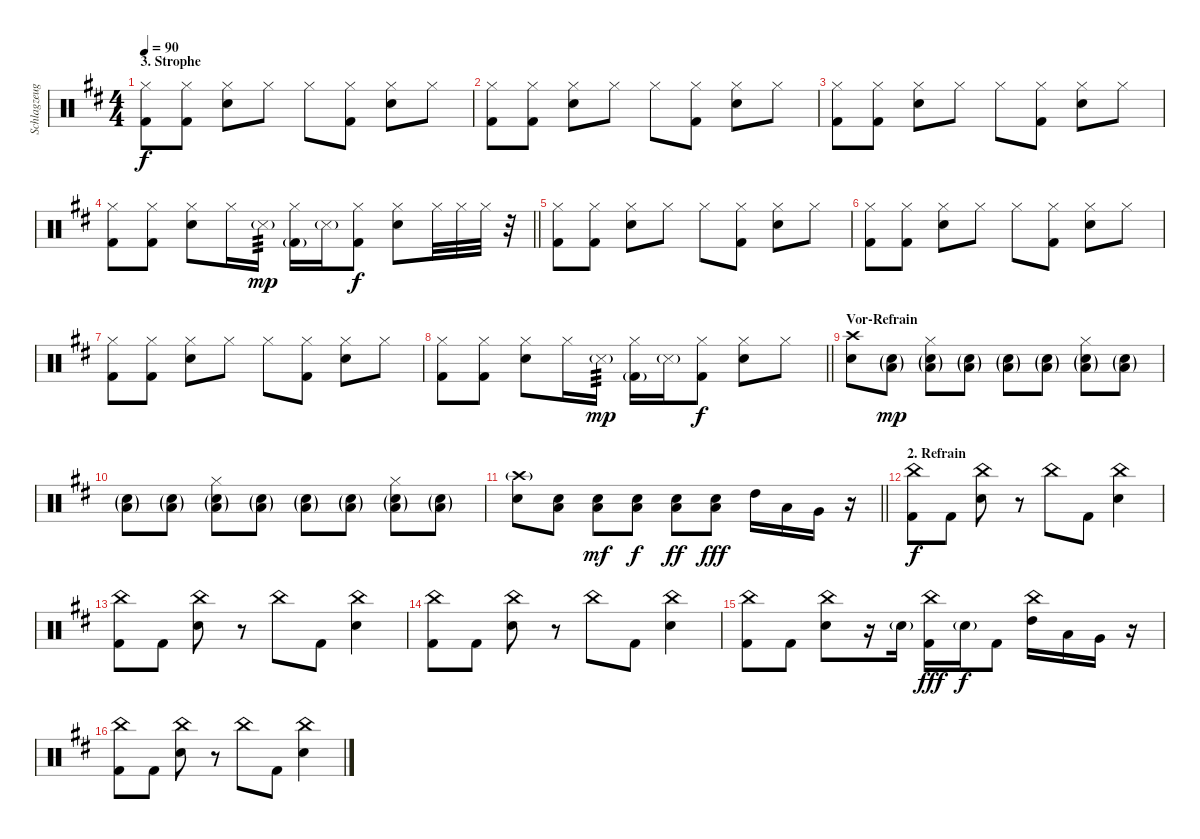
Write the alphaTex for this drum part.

\track ("Schlagzeug" "Schlagzeug") {instrument percussion}
\staff {score}
\articulation defaults
\ts (4 4)
\section ("" "3. Strophe")
\tempo 90
\clef neutral
\ks d
("Hi-Hat (closed)" "Kick (hit) 2").8{dy f} ("Hi-Hat (closed)" "Kick (hit) 2").8 ("Hi-Hat (closed)" "Electric Snare (hit)").8 "Hi-Hat (closed)".8 "Hi-Hat (closed)".8 ("Hi-Hat (closed)" "Kick (hit) 2").8 ("Hi-Hat (closed)" "Electric Snare (hit)").8 "Hi-Hat (closed)".8 |
("Hi-Hat (closed)" "Kick (hit) 2").8 ("Hi-Hat (closed)" "Kick (hit) 2").8 ("Hi-Hat (closed)" "Electric Snare (hit)").8 "Hi-Hat (closed)".8 "Hi-Hat (closed)".8 ("Hi-Hat (closed)" "Kick (hit) 2").8 ("Hi-Hat (closed)" "Electric Snare (hit)").8 "Hi-Hat (closed)".8 |
("Hi-Hat (closed)" "Kick (hit) 2").8 ("Hi-Hat (closed)" "Kick (hit) 2").8 ("Hi-Hat (closed)" "Electric Snare (hit)").8 "Hi-Hat (closed)".8 "Hi-Hat (closed)".8 ("Hi-Hat (closed)" "Kick (hit) 2").8 ("Hi-Hat (closed)" "Electric Snare (hit)").8 "Hi-Hat (closed)".8 |
\barLineRight lightlight
("Hi-Hat (closed)" "Kick (hit) 2").8 ("Hi-Hat (closed)" "Kick (hit) 2").8 ("Hi-Hat (closed)" "Electric Snare (hit)").8 "Hi-Hat (closed)".16 "Snare (side stick) 3"{g}.16{tp 3 dy mp} ("Hi-Hat (closed)" "Kick (hit) 2"{g}).16 "Snare (side stick) 3"{g}.16 ("Hi-Hat (closed)" "Kick (hit) 2").8{dy f} ("Hi-Hat (closed)" "Electric Snare (hit)").8 "Hi-Hat (closed)".32 "Hi-Hat (closed)".32 "Hi-Hat (closed)".32 r.32 |
("Hi-Hat (closed)" "Kick (hit) 2").8 ("Hi-Hat (closed)" "Kick (hit) 2").8 ("Hi-Hat (closed)" "Electric Snare (hit)").8 "Hi-Hat (closed)".8 "Hi-Hat (closed)".8 ("Hi-Hat (closed)" "Kick (hit) 2").8 ("Hi-Hat (closed)" "Electric Snare (hit)").8 "Hi-Hat (closed)".8 |
("Hi-Hat (closed)" "Kick (hit) 2").8 ("Hi-Hat (closed)" "Kick (hit) 2").8 ("Hi-Hat (closed)" "Electric Snare (hit)").8 "Hi-Hat (closed)".8 "Hi-Hat (closed)".8 ("Hi-Hat (closed)" "Kick (hit) 2").8 ("Hi-Hat (closed)" "Electric Snare (hit)").8 "Hi-Hat (closed)".8 |
("Hi-Hat (closed)" "Kick (hit) 2").8 ("Hi-Hat (closed)" "Kick (hit) 2").8 ("Hi-Hat (closed)" "Electric Snare (hit)").8 "Hi-Hat (closed)".8 "Hi-Hat (closed)".8 ("Hi-Hat (closed)" "Kick (hit) 2").8 ("Hi-Hat (closed)" "Electric Snare (hit)").8 "Hi-Hat (closed)".8 |
\barLineRight lightlight
("Hi-Hat (closed)" "Kick (hit) 2").8 ("Hi-Hat (closed)" "Kick (hit) 2").8 ("Hi-Hat (closed)" "Electric Snare (hit)").8 "Hi-Hat (closed)".16 "Snare (side stick) 3"{g}.16{tp 3 dy mp} ("Hi-Hat (closed)" "Kick (hit) 2"{g}).16 "Snare (side stick) 3"{g}.16 ("Hi-Hat (closed)" "Kick (hit) 2").8{dy f} ("Hi-Hat (closed)" "Electric Snare (hit)").8 "Hi-Hat (closed)".8 |
\section ("" "Vor-Refrain")
("Crash high (hit)" "Electric Snare (hit)").8 ("Electric Snare (hit)"{g} "Low Tom (hit)"{g}).8{dy mp} ("Hi-Hat (closed)" "Electric Snare (hit)"{g} "Low Tom (hit)"{g}).8 ("Electric Snare (hit)"{g} "Low Tom (hit)"{g}).8 ("Electric Snare (hit)"{g} "Low Tom (hit)"{g}).8 ("Electric Snare (hit)"{g} "Low Tom (hit)"{g}).8 ("Hi-Hat (closed)" "Electric Snare (hit)"{g} "Low Tom (hit)"{g}).8 ("Electric Snare (hit)"{g} "Low Tom (hit)"{g}).8 |
("Electric Snare (hit)"{g} "Low Tom (hit)"{g}).8 ("Electric Snare (hit)"{g} "Low Tom (hit)"{g}).8 ("Hi-Hat (closed)" "Electric Snare (hit)"{g} "Low Tom (hit)"{g}).8 ("Electric Snare (hit)"{g} "Low Tom (hit)"{g}).8 ("Electric Snare (hit)"{g} "Low Tom (hit)"{g}).8 ("Electric Snare (hit)"{g} "Low Tom (hit)"{g}).8 ("Hi-Hat (closed)" "Electric Snare (hit)"{g} "Low Tom (hit)"{g}).8 ("Electric Snare (hit)"{g} "Low Tom (hit)"{g}).8 |
\barLineRight lightlight
("Crash high (hit)"{g} "Electric Snare (hit)").8 ("Electric Snare (hit)" "Low Tom (hit)").8 ("Electric Snare (hit)" "Low Tom (hit)").8{dy mf} ("Electric Snare (hit)" "Low Tom (hit)").8{dy f} ("Electric Snare (hit)" "Low Tom (hit)").8{dy ff} ("Electric Snare (hit)" "Low Tom (hit)").8{dy fff} "High Tom (hit)".16 "Low Tom (hit)".16 "Very Low Tom (hit)".16 r.16 |
\section ("" "2. Refrain")
("China (hit)" "Kick (hit) 2").8{dy f} "Kick (hit) 2".8 ("China (hit)" "Electric Snare (hit)").8 r.8 "China (hit)".8 "Kick (hit) 2".8 ("China (hit)" "Electric Snare (hit)").4 |
("China (hit)" "Kick (hit) 2").8 "Kick (hit) 2".8 ("China (hit)" "Electric Snare (hit)").8 r.8 "China (hit)".8 "Kick (hit) 2".8 ("China (hit)" "Electric Snare (hit)").4 |
("China (hit)" "Kick (hit) 2").8 "Kick (hit) 2".8 ("China (hit)" "Electric Snare (hit)").8 r.8 "China (hit)".8 "Kick (hit) 2".8 ("China (hit)" "Electric Snare (hit)").4 |
("China (hit)" "Kick (hit) 2").8 "Kick (hit) 2".8 ("China (hit)" "Electric Snare (hit)").8 r.16 "Electric Snare (hit)"{g}.16 ("China (hit)" "Kick (hit) 2").16{dy fff} "Electric Snare (hit)"{g}.16{dy f} "Kick (hit) 2".8 ("China (hit)" "High Tom (hit)").16 "Low Tom (hit)".16 "Very Low Tom (hit)".16 r.16 |
("China (hit)" "Kick (hit) 2").8 "Kick (hit) 2".8 ("China (hit)" "Electric Snare (hit)").8 r.8 "China (hit)".8 "Kick (hit) 2".8 ("China (hit)" "Electric Snare (hit)").4
